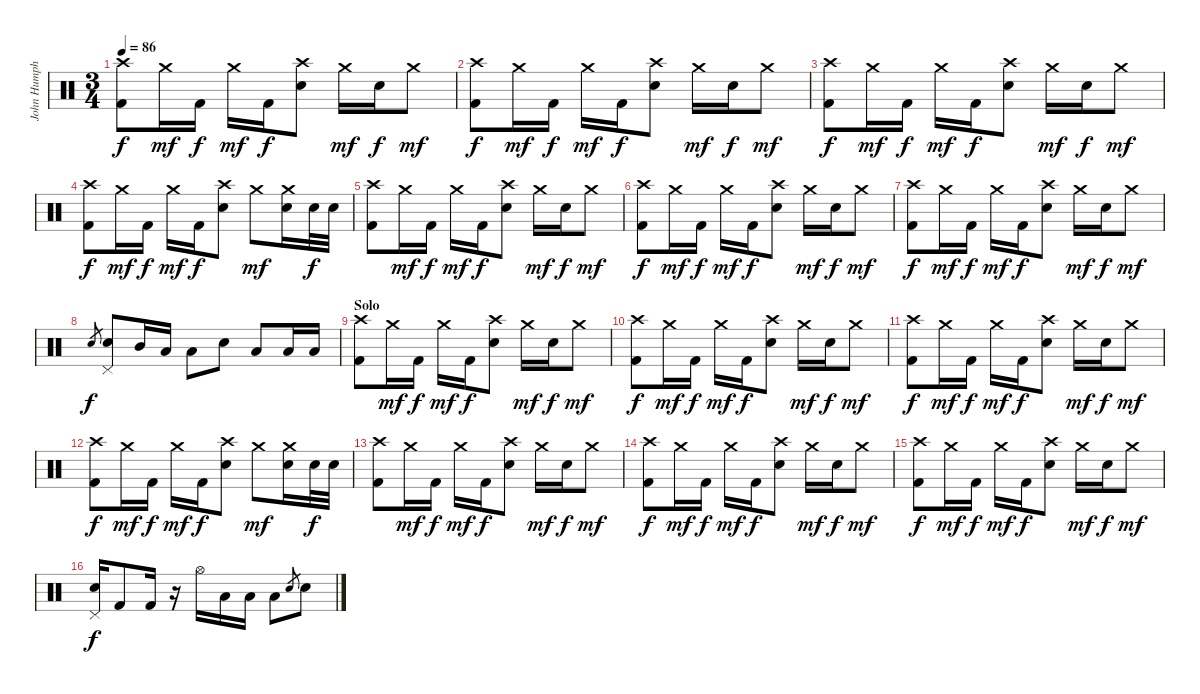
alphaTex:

\track ("John Humphrey" "John Humph") {instrument percussion}
\staff {score}
\articulation defaults
\ts (3 4)
\tempo 86
\clef neutral
\ks c
("Crash high (hit)" "Kick (hit) 2").8{dy f} "Crash medium (hit)".16{dy mf} "Kick (hit) 2".16{dy f} "Crash medium (hit)".16{dy mf} "Kick (hit) 2".16{dy f} ("Crash high (hit)" "Snare (hit) 2").8 "Crash medium (hit)".16{dy mf} "Snare (hit) 2".16{dy f} "Crash medium (hit)".8{dy mf} |
("Crash high (hit)" "Kick (hit) 2").8{dy f} "Crash medium (hit)".16{dy mf} "Kick (hit) 2".16{dy f} "Crash medium (hit)".16{dy mf} "Kick (hit) 2".16{dy f} ("Crash high (hit)" "Snare (hit) 2").8 "Crash medium (hit)".16{dy mf} "Snare (hit) 2".16{dy f} "Crash medium (hit)".8{dy mf} |
("Crash high (hit)" "Kick (hit) 2").8{dy f} "Crash medium (hit)".16{dy mf} "Kick (hit) 2".16{dy f} "Crash medium (hit)".16{dy mf} "Kick (hit) 2".16{dy f} ("Crash high (hit)" "Snare (hit) 2").8 "Crash medium (hit)".16{dy mf} "Snare (hit) 2".16{dy f} "Crash medium (hit)".8{dy mf} |
("Crash high (hit)" "Kick (hit) 2").8{dy f} "Crash medium (hit)".16{dy mf} "Kick (hit) 2".16{dy f} "Crash medium (hit)".16{dy mf} "Kick (hit) 2".16{dy f} ("Crash high (hit)" "Snare (hit) 2").8 "Crash medium (hit)".8{dy mf} ("Crash medium (hit)" "Snare (hit) 2").16 "Snare (hit) 2".32{dy f} "Snare (hit) 2".32 |
("Crash high (hit)" "Kick (hit) 2").8 "Crash medium (hit)".16{dy mf} "Kick (hit) 2".16{dy f} "Crash medium (hit)".16{dy mf} "Kick (hit) 2".16{dy f} ("Crash high (hit)" "Snare (hit) 2").8 "Crash medium (hit)".16{dy mf} "Snare (hit) 2".16{dy f} "Crash medium (hit)".8{dy mf} |
("Crash high (hit)" "Kick (hit) 2").8{dy f} "Crash medium (hit)".16{dy mf} "Kick (hit) 2".16{dy f} "Crash medium (hit)".16{dy mf} "Kick (hit) 2".16{dy f} ("Crash high (hit)" "Snare (hit) 2").8 "Crash medium (hit)".16{dy mf} "Snare (hit) 2".16{dy f} "Crash medium (hit)".8{dy mf} |
("Crash high (hit)" "Kick (hit) 2").8{dy f} "Crash medium (hit)".16{dy mf} "Kick (hit) 2".16{dy f} "Crash medium (hit)".16{dy mf} "Kick (hit) 2".16{dy f} ("Crash high (hit)" "Snare (hit) 2").8 "Crash medium (hit)".16{dy mf} "Snare (hit) 2".16{dy f} "Crash medium (hit)".8{dy mf} |
"Snare (hit) 2".8{gr dy f} ("Pedal Hi-Hat (hit)" "Snare (hit) 2").8 "Mid Tom (hit)".16 "Low Tom (hit)".16 "Low Floor Tom (hit)".8 "Snare (hit) 2".8 "Low Tom (hit)".8 "Low Floor Tom (hit)".16 "Low Floor Tom (hit)".16 |
\section ("" "Solo")
("Crash high (hit)" "Kick (hit) 2").8 "Crash medium (hit)".16{dy mf} "Kick (hit) 2".16{dy f} "Crash medium (hit)".16{dy mf} "Kick (hit) 2".16{dy f} ("Crash high (hit)" "Snare (hit) 2").8 "Crash medium (hit)".16{dy mf} "Snare (hit) 2".16{dy f} "Crash medium (hit)".8{dy mf} |
("Crash high (hit)" "Kick (hit) 2").8{dy f} "Crash medium (hit)".16{dy mf} "Kick (hit) 2".16{dy f} "Crash medium (hit)".16{dy mf} "Kick (hit) 2".16{dy f} ("Crash high (hit)" "Snare (hit) 2").8 "Crash medium (hit)".16{dy mf} "Snare (hit) 2".16{dy f} "Crash medium (hit)".8{dy mf} |
("Crash high (hit)" "Kick (hit) 2").8{dy f} "Crash medium (hit)".16{dy mf} "Kick (hit) 2".16{dy f} "Crash medium (hit)".16{dy mf} "Kick (hit) 2".16{dy f} ("Crash high (hit)" "Snare (hit) 2").8 "Crash medium (hit)".16{dy mf} "Snare (hit) 2".16{dy f} "Crash medium (hit)".8{dy mf} |
("Crash high (hit)" "Kick (hit) 2").8{dy f} "Crash medium (hit)".16{dy mf} "Kick (hit) 2".16{dy f} "Crash medium (hit)".16{dy mf} "Kick (hit) 2".16{dy f} ("Crash high (hit)" "Snare (hit) 2").8 "Crash medium (hit)".8{dy mf} ("Crash medium (hit)" "Snare (hit) 2").16 "Snare (hit) 2".32{dy f} "Snare (hit) 2".32 |
("Crash high (hit)" "Kick (hit) 2").8 "Crash medium (hit)".16{dy mf} "Kick (hit) 2".16{dy f} "Crash medium (hit)".16{dy mf} "Kick (hit) 2".16{dy f} ("Crash high (hit)" "Snare (hit) 2").8 "Crash medium (hit)".16{dy mf} "Snare (hit) 2".16{dy f} "Crash medium (hit)".8{dy mf} |
("Crash high (hit)" "Kick (hit) 2").8{dy f} "Crash medium (hit)".16{dy mf} "Kick (hit) 2".16{dy f} "Crash medium (hit)".16{dy mf} "Kick (hit) 2".16{dy f} ("Crash high (hit)" "Snare (hit) 2").8 "Crash medium (hit)".16{dy mf} "Snare (hit) 2".16{dy f} "Crash medium (hit)".8{dy mf} |
("Crash high (hit)" "Kick (hit) 2").8{dy f} "Crash medium (hit)".16{dy mf} "Kick (hit) 2".16{dy f} "Crash medium (hit)".16{dy mf} "Kick (hit) 2".16{dy f} ("Crash high (hit)" "Snare (hit) 2").8 "Crash medium (hit)".16{dy mf} "Snare (hit) 2".16{dy f} "Crash medium (hit)".8{dy mf} |
("Pedal Hi-Hat (hit)" "Snare (hit) 2").16{dy f} "Kick (hit) 2".8 "Kick (hit) 2".16 r.16 "Hi-Hat (open)".16 "Low Tom (hit)".16 "Low Floor Tom (hit)".16 "Low Floor Tom (hit)".8 "Snare (hit) 2".8{gr} "Snare (hit) 2".8
